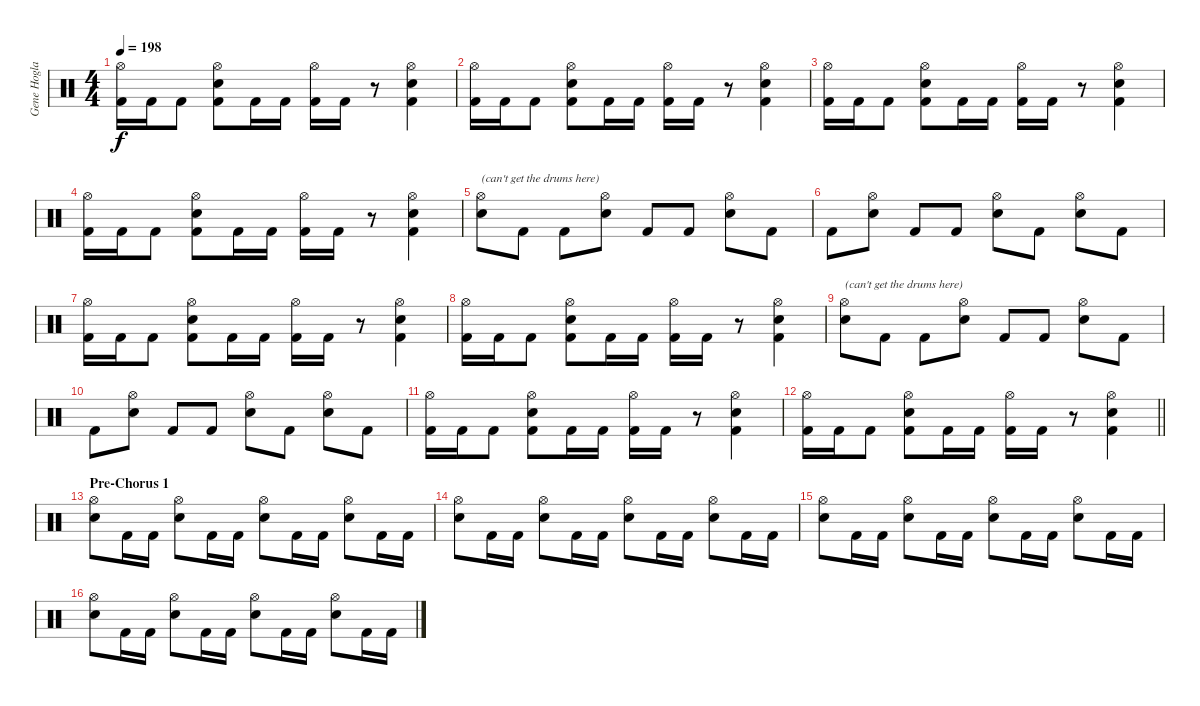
\track ("Gene Hoglan" "Gene Hogla") {instrument percussion}
\staff {score}
\articulation defaults
\ts (4 4)
\tempo 198
\clef neutral
\ks c
("Hi-Hat (open)" "Kick (hit) 2").16{dy f} "Kick (hit) 2".16 "Kick (hit) 2".8 ("Hi-Hat (open)" "Snare (hit) 2" "Kick (hit) 2").8 "Kick (hit) 2".16 "Kick (hit) 2".16 ("Hi-Hat (open)" "Kick (hit) 2").16 "Kick (hit) 2".16 r.8 ("Hi-Hat (open)" "Snare (hit) 2" "Kick (hit) 2").4 |
("Hi-Hat (open)" "Kick (hit) 2").16 "Kick (hit) 2".16 "Kick (hit) 2".8 ("Hi-Hat (open)" "Snare (hit) 2" "Kick (hit) 2").8 "Kick (hit) 2".16 "Kick (hit) 2".16 ("Hi-Hat (open)" "Kick (hit) 2").16 "Kick (hit) 2".16 r.8 ("Hi-Hat (open)" "Snare (hit) 2" "Kick (hit) 2").4 |
("Hi-Hat (open)" "Kick (hit) 2").16 "Kick (hit) 2".16 "Kick (hit) 2".8 ("Hi-Hat (open)" "Snare (hit) 2" "Kick (hit) 2").8 "Kick (hit) 2".16 "Kick (hit) 2".16 ("Hi-Hat (open)" "Kick (hit) 2").16 "Kick (hit) 2".16 r.8 ("Hi-Hat (open)" "Snare (hit) 2" "Kick (hit) 2").4 |
("Hi-Hat (open)" "Kick (hit) 2").16 "Kick (hit) 2".16 "Kick (hit) 2".8 ("Hi-Hat (open)" "Snare (hit) 2" "Kick (hit) 2").8 "Kick (hit) 2".16 "Kick (hit) 2".16 ("Hi-Hat (open)" "Kick (hit) 2").16 "Kick (hit) 2".16 r.8 ("Hi-Hat (open)" "Snare (hit) 2" "Kick (hit) 2").4 |
("Hi-Hat (open)" "Snare (hit) 2").8{txt "(can't get the drums here)"} "Kick (hit) 2".8 "Kick (hit) 2".8 ("Hi-Hat (open)" "Snare (hit) 2").8 "Kick (hit) 2".8 "Kick (hit) 2".8 ("Hi-Hat (open)" "Snare (hit) 2").8 "Kick (hit) 2".8 |
"Kick (hit) 2".8 ("Hi-Hat (open)" "Snare (hit) 2").8 "Kick (hit) 2".8 "Kick (hit) 2".8 ("Hi-Hat (open)" "Snare (hit) 2").8 "Kick (hit) 2".8 ("Hi-Hat (open)" "Snare (hit) 2").8 "Kick (hit) 2".8 |
("Hi-Hat (open)" "Kick (hit) 2").16 "Kick (hit) 2".16 "Kick (hit) 2".8 ("Hi-Hat (open)" "Snare (hit) 2" "Kick (hit) 2").8 "Kick (hit) 2".16 "Kick (hit) 2".16 ("Hi-Hat (open)" "Kick (hit) 2").16 "Kick (hit) 2".16 r.8 ("Hi-Hat (open)" "Snare (hit) 2" "Kick (hit) 2").4 |
("Hi-Hat (open)" "Kick (hit) 2").16 "Kick (hit) 2".16 "Kick (hit) 2".8 ("Hi-Hat (open)" "Snare (hit) 2" "Kick (hit) 2").8 "Kick (hit) 2".16 "Kick (hit) 2".16 ("Hi-Hat (open)" "Kick (hit) 2").16 "Kick (hit) 2".16 r.8 ("Hi-Hat (open)" "Snare (hit) 2" "Kick (hit) 2").4 |
("Hi-Hat (open)" "Snare (hit) 2").8{txt "(can't get the drums here)"} "Kick (hit) 2".8 "Kick (hit) 2".8 ("Hi-Hat (open)" "Snare (hit) 2").8 "Kick (hit) 2".8 "Kick (hit) 2".8 ("Hi-Hat (open)" "Snare (hit) 2").8 "Kick (hit) 2".8 |
"Kick (hit) 2".8 ("Hi-Hat (open)" "Snare (hit) 2").8 "Kick (hit) 2".8 "Kick (hit) 2".8 ("Hi-Hat (open)" "Snare (hit) 2").8 "Kick (hit) 2".8 ("Hi-Hat (open)" "Snare (hit) 2").8 "Kick (hit) 2".8 |
("Hi-Hat (open)" "Kick (hit) 2").16 "Kick (hit) 2".16 "Kick (hit) 2".8 ("Hi-Hat (open)" "Snare (hit) 2" "Kick (hit) 2").8 "Kick (hit) 2".16 "Kick (hit) 2".16 ("Hi-Hat (open)" "Kick (hit) 2").16 "Kick (hit) 2".16 r.8 ("Hi-Hat (open)" "Snare (hit) 2" "Kick (hit) 2").4 |
\barLineRight lightlight
("Hi-Hat (open)" "Kick (hit) 2").16 "Kick (hit) 2".16 "Kick (hit) 2".8 ("Hi-Hat (open)" "Snare (hit) 2" "Kick (hit) 2").8 "Kick (hit) 2".16 "Kick (hit) 2".16 ("Hi-Hat (open)" "Kick (hit) 2").16 "Kick (hit) 2".16 r.8 ("Hi-Hat (open)" "Snare (hit) 2" "Kick (hit) 2").4 |
\section ("" "Pre-Chorus 1")
("Hi-Hat (open)" "Snare (hit) 2").8 "Kick (hit) 2".16 "Kick (hit) 2".16 ("Hi-Hat (open)" "Snare (hit) 2").8 "Kick (hit) 2".16 "Kick (hit) 2".16 ("Hi-Hat (open)" "Snare (hit) 2").8 "Kick (hit) 2".16 "Kick (hit) 2".16 ("Hi-Hat (open)" "Snare (hit) 2").8 "Kick (hit) 2".16 "Kick (hit) 2".16 |
("Hi-Hat (open)" "Snare (hit) 2").8 "Kick (hit) 2".16 "Kick (hit) 2".16 ("Hi-Hat (open)" "Snare (hit) 2").8 "Kick (hit) 2".16 "Kick (hit) 2".16 ("Hi-Hat (open)" "Snare (hit) 2").8 "Kick (hit) 2".16 "Kick (hit) 2".16 ("Hi-Hat (open)" "Snare (hit) 2").8 "Kick (hit) 2".16 "Kick (hit) 2".16 |
("Hi-Hat (open)" "Snare (hit) 2").8 "Kick (hit) 2".16 "Kick (hit) 2".16 ("Hi-Hat (open)" "Snare (hit) 2").8 "Kick (hit) 2".16 "Kick (hit) 2".16 ("Hi-Hat (open)" "Snare (hit) 2").8 "Kick (hit) 2".16 "Kick (hit) 2".16 ("Hi-Hat (open)" "Snare (hit) 2").8 "Kick (hit) 2".16 "Kick (hit) 2".16 |
("Hi-Hat (open)" "Snare (hit) 2").8 "Kick (hit) 2".16 "Kick (hit) 2".16 ("Hi-Hat (open)" "Snare (hit) 2").8 "Kick (hit) 2".16 "Kick (hit) 2".16 ("Hi-Hat (open)" "Snare (hit) 2").8 "Kick (hit) 2".16 "Kick (hit) 2".16 ("Hi-Hat (open)" "Snare (hit) 2").8 "Kick (hit) 2".16 "Kick (hit) 2".16
